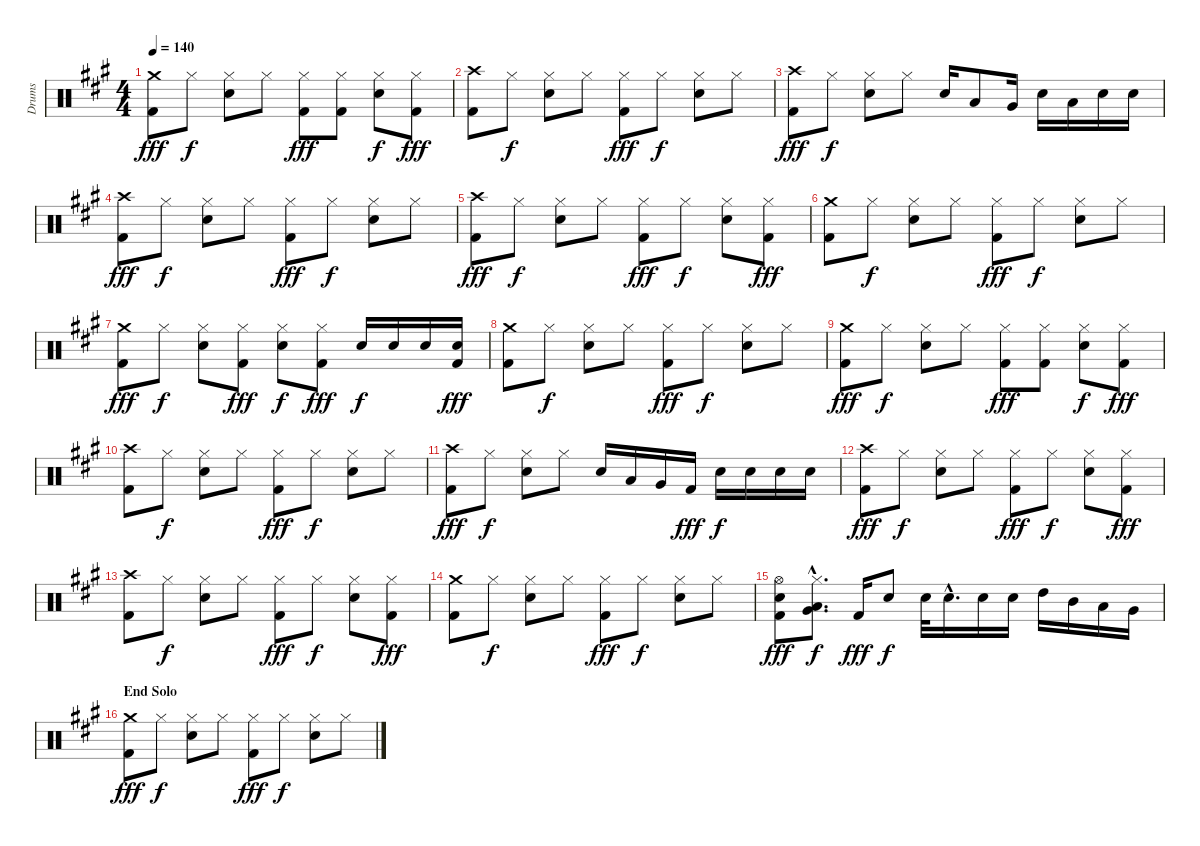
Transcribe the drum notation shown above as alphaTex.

\track ("Drums" "Drums") {instrument percussion}
\staff {score}
\articulation defaults
\ts (4 4)
\tempo 140
\clef neutral
\ks a
("Crash medium (hit)" "Kick (hit) 2").8{dy fff} "Hi-Hat (closed)".8{dy f} ("Hi-Hat (closed)" "Electric Snare (hit)").8 "Hi-Hat (closed)".8 ("Hi-Hat (closed)" "Kick (hit) 2").8{dy fff} ("Hi-Hat (closed)" "Kick (hit) 2").8 ("Hi-Hat (closed)" "Electric Snare (hit)").8{dy f} ("Hi-Hat (closed)" "Kick (hit) 2").8{dy fff} |
("Crash high (hit)" "Kick (hit) 2").8 "Hi-Hat (closed)".8{dy f} ("Hi-Hat (closed)" "Electric Snare (hit)").8 "Hi-Hat (closed)".8 ("Hi-Hat (closed)" "Kick (hit) 2").8{dy fff} "Hi-Hat (closed)".8{dy f} ("Hi-Hat (closed)" "Electric Snare (hit)").8 "Hi-Hat (closed)".8 |
("Crash high (hit)" "Kick (hit) 2").8{dy fff} "Hi-Hat (closed)".8{dy f} ("Hi-Hat (closed)" "Electric Snare (hit)").8 "Hi-Hat (closed)".8 "Electric Snare (hit)".16 "Low Tom (hit)".8 "Very Low Tom (hit)".16 "Electric Snare (hit)".16 "Low Floor Tom (hit)".16 "Electric Snare (hit)".16 "Electric Snare (hit)".16 |
("Crash high (hit)" "Kick (hit) 2").8{dy fff} "Hi-Hat (closed)".8{dy f} ("Hi-Hat (closed)" "Electric Snare (hit)").8 "Hi-Hat (closed)".8 ("Hi-Hat (closed)" "Kick (hit) 2").8{dy fff} "Hi-Hat (closed)".8{dy f} ("Hi-Hat (closed)" "Electric Snare (hit)").8 "Hi-Hat (closed)".8 |
("Crash high (hit)" "Kick (hit) 2").8{dy fff} "Hi-Hat (closed)".8{dy f} ("Hi-Hat (closed)" "Electric Snare (hit)").8 "Hi-Hat (closed)".8 ("Hi-Hat (closed)" "Kick (hit) 2").8{dy fff} "Hi-Hat (closed)".8{dy f} ("Hi-Hat (closed)" "Electric Snare (hit)").8 ("Hi-Hat (closed)" "Kick (hit) 2").8{dy fff} |
("Crash medium (hit)" "Kick (hit) 2").8 "Hi-Hat (closed)".8{dy f} ("Hi-Hat (closed)" "Electric Snare (hit)").8 "Hi-Hat (closed)".8 ("Hi-Hat (closed)" "Kick (hit) 2").8{dy fff} "Hi-Hat (closed)".8{dy f} ("Hi-Hat (closed)" "Electric Snare (hit)").8 "Hi-Hat (closed)".8 |
("Crash medium (hit)" "Kick (hit) 2").8{dy fff} "Hi-Hat (closed)".8{dy f} ("Hi-Hat (closed)" "Electric Snare (hit)").8 ("Hi-Hat (closed)" "Kick (hit) 2").8{dy fff} ("Hi-Hat (closed)" "Electric Snare (hit)").8{dy f} ("Hi-Hat (closed)" "Kick (hit) 2").8{dy fff} "Electric Snare (hit)".16{dy f} "Electric Snare (hit)".16 "Electric Snare (hit)".16 ("Electric Snare (hit)" "Kick (hit) 2").16{dy fff} |
("Crash medium (hit)" "Kick (hit) 2").8 "Hi-Hat (closed)".8{dy f} ("Hi-Hat (closed)" "Electric Snare (hit)").8 "Hi-Hat (closed)".8 ("Hi-Hat (closed)" "Kick (hit) 2").8{dy fff} "Hi-Hat (closed)".8{dy f} ("Hi-Hat (closed)" "Electric Snare (hit)").8 "Hi-Hat (closed)".8 |
("Crash medium (hit)" "Kick (hit) 2").8{dy fff} "Hi-Hat (closed)".8{dy f} ("Hi-Hat (closed)" "Electric Snare (hit)").8 "Hi-Hat (closed)".8 ("Hi-Hat (closed)" "Kick (hit) 2").8{dy fff} ("Hi-Hat (closed)" "Kick (hit) 2").8 ("Hi-Hat (closed)" "Electric Snare (hit)").8{dy f} ("Hi-Hat (closed)" "Kick (hit) 2").8{dy fff} |
("Crash high (hit)" "Kick (hit) 2").8 "Hi-Hat (closed)".8{dy f} ("Hi-Hat (closed)" "Electric Snare (hit)").8 "Hi-Hat (closed)".8 ("Hi-Hat (closed)" "Kick (hit) 2").8{dy fff} "Hi-Hat (closed)".8{dy f} ("Hi-Hat (closed)" "Electric Snare (hit)").8 "Hi-Hat (closed)".8 |
("Crash high (hit)" "Kick (hit) 2").8{dy fff} "Hi-Hat (closed)".8{dy f} ("Hi-Hat (closed)" "Electric Snare (hit)").8 "Hi-Hat (closed)".8 "Electric Snare (hit)".16 "Low Tom (hit)".16 "Very Low Tom (hit)".16 "Kick (hit) 2".16{dy fff} "Electric Snare (hit)".16{dy f} "Electric Snare (hit)".16 "Electric Snare (hit)".16 "Electric Snare (hit)".16 |
("Crash high (hit)" "Kick (hit) 2").8{dy fff} "Hi-Hat (closed)".8{dy f} ("Hi-Hat (closed)" "Electric Snare (hit)").8 "Hi-Hat (closed)".8 ("Hi-Hat (closed)" "Kick (hit) 2").8{dy fff} "Hi-Hat (closed)".8{dy f} ("Hi-Hat (closed)" "Electric Snare (hit)").8 ("Hi-Hat (closed)" "Kick (hit) 2").8{dy fff} |
("Crash high (hit)" "Kick (hit) 2").8 "Hi-Hat (closed)".8{dy f} ("Hi-Hat (closed)" "Electric Snare (hit)").8 "Hi-Hat (closed)".8 ("Hi-Hat (closed)" "Kick (hit) 2").8{dy fff} "Hi-Hat (closed)".8{dy f} ("Hi-Hat (closed)" "Electric Snare (hit)").8 ("Hi-Hat (closed)" "Kick (hit) 2").8{dy fff} |
("Crash medium (hit)" "Kick (hit) 2").8 "Hi-Hat (closed)".8{dy f} ("Hi-Hat (closed)" "Electric Snare (hit)").8 "Hi-Hat (closed)".8 ("Hi-Hat (closed)" "Kick (hit) 2").8{dy fff} "Hi-Hat (closed)".8{dy f} ("Hi-Hat (closed)" "Electric Snare (hit)").8 "Hi-Hat (closed)".8 |
("Hi-Hat (open)" "Electric Snare (hit)" "Kick (hit) 2").8{dy fff} ("Hi-Hat (closed)"{hac} "Low Tom (hit)"{hac} "Very Low Tom (hit)"{hac}).8{d dy f} "Kick (hit) 2".16{dy fff} "Electric Snare (hit)".8{dy f} "Electric Snare (hit)".32 "Electric Snare (hit)"{hac}.16{d} "Electric Snare (hit)".16 "Electric Snare (hit)".16 "High Tom (hit)".16 "Mid Tom (hit)".16 "Low Tom (hit)".16 "Very Low Tom (hit)".16 |
\section ("" "End Solo")
("Crash medium (hit)" "Kick (hit) 2").8{dy fff} "Hi-Hat (closed)".8{dy f} ("Hi-Hat (closed)" "Electric Snare (hit)").8 "Hi-Hat (closed)".8 ("Hi-Hat (closed)" "Kick (hit) 2").8{dy fff} "Hi-Hat (closed)".8{dy f} ("Hi-Hat (closed)" "Electric Snare (hit)").8 "Hi-Hat (closed)".8
